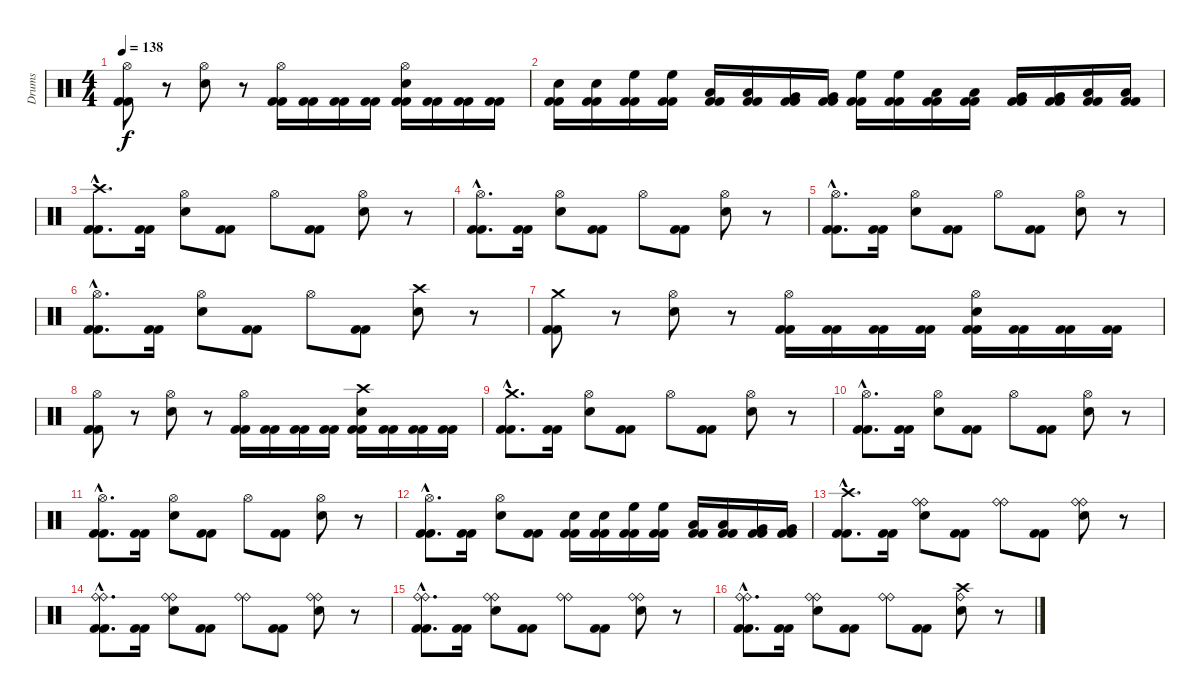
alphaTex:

\track ("Drums" "Drums") {instrument percussion}
\staff {score}
\articulation defaults
\ts (4 4)
\tempo 138
\clef neutral
\ks c
("Hi-Hat (open)" "Kick (hit) 2" "Kick (hit) 2").8{dy f} r.8 ("Hi-Hat (open)" "Electric Snare (hit)").8 r.8 ("Hi-Hat (open)" "Kick (hit) 2" "Kick (hit) 2").16 ("Kick (hit) 2" "Kick (hit) 2").16 ("Kick (hit) 2" "Kick (hit) 2").16 ("Kick (hit) 2" "Kick (hit) 2").16 ("Hi-Hat (open)" "Electric Snare (hit)" "Kick (hit) 2" "Kick (hit) 2").16 ("Kick (hit) 2" "Kick (hit) 2").16 ("Kick (hit) 2" "Kick (hit) 2").16 ("Kick (hit) 2" "Kick (hit) 2").16 |
("Electric Snare (hit)" "Kick (hit) 2" "Kick (hit) 2").16 ("Electric Snare (hit)" "Kick (hit) 2" "Kick (hit) 2").16 ("High Floor Tom (hit)" "Kick (hit) 2" "Kick (hit) 2").16 ("High Floor Tom (hit)" "Kick (hit) 2" "Kick (hit) 2").16 ("Low Tom (hit)" "Kick (hit) 2" "Kick (hit) 2").16 ("Low Tom (hit)" "Kick (hit) 2" "Kick (hit) 2").16 ("Very Low Tom (hit)" "Kick (hit) 2" "Kick (hit) 2").16 ("Very Low Tom (hit)" "Kick (hit) 2" "Kick (hit) 2").16 ("High Floor Tom (hit)" "Kick (hit) 2" "Kick (hit) 2").16 ("High Floor Tom (hit)" "Kick (hit) 2" "Kick (hit) 2").16 ("Low Tom (hit)" "Kick (hit) 2" "Kick (hit) 2").16 ("Low Tom (hit)" "Kick (hit) 2" "Kick (hit) 2").16 ("Very Low Tom (hit)" "Kick (hit) 2" "Kick (hit) 2").16 ("Very Low Tom (hit)" "Kick (hit) 2" "Kick (hit) 2").16 ("Low Floor Tom (hit)" "Kick (hit) 2" "Kick (hit) 2").16 ("Low Floor Tom (hit)" "Kick (hit) 2" "Kick (hit) 2").16 |
("Crash high (hit)"{hac} "Kick (hit) 2"{hac} "Kick (hit) 2"{hac}).8{d} ("Kick (hit) 2" "Kick (hit) 2").16 ("Hi-Hat (open)" "Electric Snare (hit)").8 ("Kick (hit) 2" "Kick (hit) 2").8 "Hi-Hat (open)".8 ("Kick (hit) 2" "Kick (hit) 2").8 ("Hi-Hat (open)" "Electric Snare (hit)").8 r.8 |
("Hi-Hat (open)"{hac} "Kick (hit) 2"{hac} "Kick (hit) 2"{hac}).8{d} ("Kick (hit) 2" "Kick (hit) 2").16 ("Hi-Hat (open)" "Electric Snare (hit)").8 ("Kick (hit) 2" "Kick (hit) 2").8 "Hi-Hat (open)".8 ("Kick (hit) 2" "Kick (hit) 2").8 ("Hi-Hat (open)" "Electric Snare (hit)").8 r.8 |
("Hi-Hat (open)"{hac} "Kick (hit) 2"{hac} "Kick (hit) 2"{hac}).8{d} ("Kick (hit) 2" "Kick (hit) 2").16 ("Hi-Hat (open)" "Electric Snare (hit)").8 ("Kick (hit) 2" "Kick (hit) 2").8 "Hi-Hat (open)".8 ("Kick (hit) 2" "Kick (hit) 2").8 ("Hi-Hat (open)" "Electric Snare (hit)").8 r.8 |
("Hi-Hat (open)"{hac} "Kick (hit) 2"{hac} "Kick (hit) 2"{hac}).8{d} ("Kick (hit) 2" "Kick (hit) 2").16 ("Hi-Hat (open)" "Electric Snare (hit)").8 ("Kick (hit) 2" "Kick (hit) 2").8 "Hi-Hat (open)".8 ("Kick (hit) 2" "Kick (hit) 2").8 ("Crash high (hit)" "Electric Snare (hit)").8 r.8 |
("Crash medium (hit)" "Kick (hit) 2" "Kick (hit) 2").8 r.8 ("Hi-Hat (open)" "Electric Snare (hit)").8 r.8 ("Hi-Hat (open)" "Kick (hit) 2" "Kick (hit) 2").16 ("Kick (hit) 2" "Kick (hit) 2").16 ("Kick (hit) 2" "Kick (hit) 2").16 ("Kick (hit) 2" "Kick (hit) 2").16 ("Hi-Hat (open)" "Electric Snare (hit)" "Kick (hit) 2" "Kick (hit) 2").16 ("Kick (hit) 2" "Kick (hit) 2").16 ("Kick (hit) 2" "Kick (hit) 2").16 ("Kick (hit) 2" "Kick (hit) 2").16 |
("Hi-Hat (open)" "Kick (hit) 2" "Kick (hit) 2").8 r.8 ("Hi-Hat (open)" "Electric Snare (hit)").8 r.8 ("Hi-Hat (open)" "Kick (hit) 2" "Kick (hit) 2").16 ("Kick (hit) 2" "Kick (hit) 2").16 ("Kick (hit) 2" "Kick (hit) 2").16 ("Kick (hit) 2" "Kick (hit) 2").16 ("Crash high (hit)" "Electric Snare (hit)" "Kick (hit) 2" "Kick (hit) 2").16 ("Kick (hit) 2" "Kick (hit) 2").16 ("Kick (hit) 2" "Kick (hit) 2").16 ("Kick (hit) 2" "Kick (hit) 2").16 |
("Crash medium (hit)"{hac} "Kick (hit) 2"{hac} "Kick (hit) 2"{hac}).8{d} ("Kick (hit) 2" "Kick (hit) 2").16 ("Hi-Hat (open)" "Electric Snare (hit)").8 ("Kick (hit) 2" "Kick (hit) 2").8 "Hi-Hat (open)".8 ("Kick (hit) 2" "Kick (hit) 2").8 ("Hi-Hat (open)" "Electric Snare (hit)").8 r.8 |
("Hi-Hat (open)"{hac} "Kick (hit) 2"{hac} "Kick (hit) 2"{hac}).8{d} ("Kick (hit) 2" "Kick (hit) 2").16 ("Hi-Hat (open)" "Electric Snare (hit)").8 ("Kick (hit) 2" "Kick (hit) 2").8 "Hi-Hat (open)".8 ("Kick (hit) 2" "Kick (hit) 2").8 ("Hi-Hat (open)" "Electric Snare (hit)").8 r.8 |
("Hi-Hat (open)"{hac} "Kick (hit) 2"{hac} "Kick (hit) 2"{hac}).8{d} ("Kick (hit) 2" "Kick (hit) 2").16 ("Hi-Hat (open)" "Electric Snare (hit)").8 ("Kick (hit) 2" "Kick (hit) 2").8 "Hi-Hat (open)".8 ("Kick (hit) 2" "Kick (hit) 2").8 ("Hi-Hat (open)" "Electric Snare (hit)").8 r.8 |
("Hi-Hat (open)"{hac} "Kick (hit) 2"{hac} "Kick (hit) 2"{hac}).8{d} ("Kick (hit) 2" "Kick (hit) 2").16 ("Hi-Hat (open)" "Electric Snare (hit)").8 ("Kick (hit) 2" "Kick (hit) 2").8 ("Electric Snare (hit)" "Kick (hit) 2" "Kick (hit) 2").16 ("Electric Snare (hit)" "Kick (hit) 2" "Kick (hit) 2").16 ("High Floor Tom (hit)" "Kick (hit) 2" "Kick (hit) 2").16 ("High Floor Tom (hit)" "Kick (hit) 2" "Kick (hit) 2").16 ("Low Tom (hit)" "Kick (hit) 2" "Kick (hit) 2").16 ("Low Tom (hit)" "Kick (hit) 2" "Kick (hit) 2").16 ("Very Low Tom (hit)" "Kick (hit) 2" "Kick (hit) 2").16 ("Very Low Tom (hit)" "Kick (hit) 2" "Kick (hit) 2").16 |
("Crash high (hit)"{hac} "Kick (hit) 2"{hac} "Kick (hit) 2"{hac}).8{d} ("Kick (hit) 2" "Kick (hit) 2").16 ("Ride (bell)" "Ride (bell)" "Electric Snare (hit)").8 ("Kick (hit) 2" "Kick (hit) 2").8 ("Ride (bell)" "Ride (bell)").8 ("Kick (hit) 2" "Kick (hit) 2").8 ("Ride (bell)" "Ride (bell)" "Electric Snare (hit)").8 r.8 |
("Ride (bell)"{hac} "Ride (bell)"{hac} "Kick (hit) 2"{hac} "Kick (hit) 2"{hac}).8{d} ("Kick (hit) 2" "Kick (hit) 2").16 ("Ride (bell)" "Ride (bell)" "Electric Snare (hit)").8 ("Kick (hit) 2" "Kick (hit) 2").8 ("Ride (bell)" "Ride (bell)").8 ("Kick (hit) 2" "Kick (hit) 2").8 ("Ride (bell)" "Ride (bell)" "Electric Snare (hit)").8 r.8 |
("Ride (bell)"{hac} "Ride (bell)"{hac} "Kick (hit) 2"{hac} "Kick (hit) 2"{hac}).8{d} ("Kick (hit) 2" "Kick (hit) 2").16 ("Ride (bell)" "Ride (bell)" "Electric Snare (hit)").8 ("Kick (hit) 2" "Kick (hit) 2").8 ("Ride (bell)" "Ride (bell)").8 ("Kick (hit) 2" "Kick (hit) 2").8 ("Ride (bell)" "Ride (bell)" "Electric Snare (hit)").8 r.8 |
("Ride (bell)"{hac} "Ride (bell)"{hac} "Kick (hit) 2"{hac} "Kick (hit) 2"{hac}).8{d} ("Kick (hit) 2" "Kick (hit) 2").16 ("Ride (bell)" "Ride (bell)" "Electric Snare (hit)").8 ("Kick (hit) 2" "Kick (hit) 2").8 ("Ride (bell)" "Ride (bell)").8 ("Kick (hit) 2" "Kick (hit) 2").8 ("Crash high (hit)" "Ride (bell)" "Electric Snare (hit)").8 r.8
